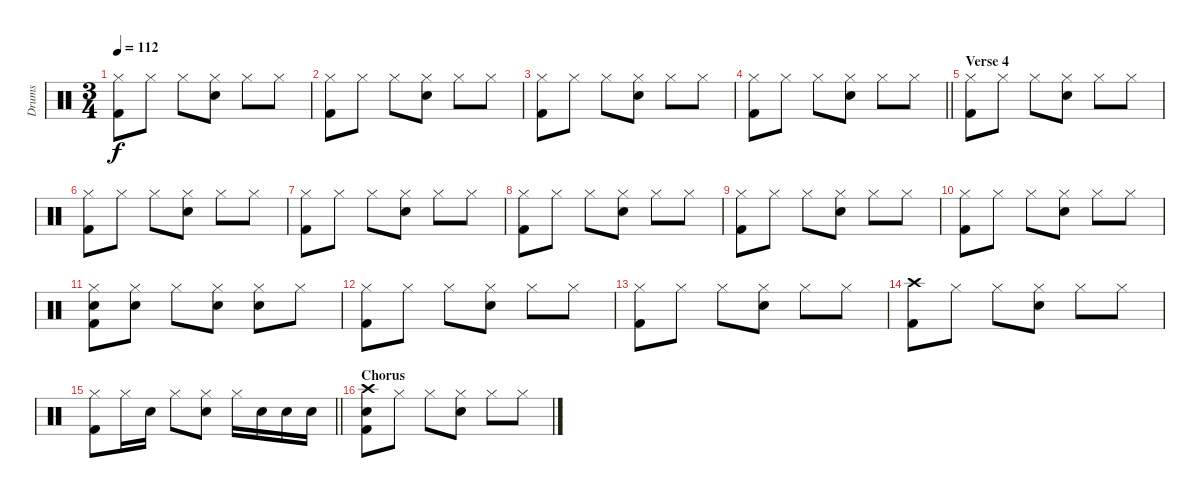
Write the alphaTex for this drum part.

\track ("Drums" "Drums") {instrument percussion}
\staff {score}
\articulation defaults
\ts (3 4)
\tempo 112
\clef neutral
\ks c
("Hi-Hat (closed)" "Kick (hit) 2").8{dy f} "Hi-Hat (closed)".8 "Hi-Hat (closed)".8 ("Hi-Hat (closed)" "Snare (hit) 2").8 "Hi-Hat (closed)".8 "Hi-Hat (closed)".8 |
("Hi-Hat (closed)" "Kick (hit) 2").8 "Hi-Hat (closed)".8 "Hi-Hat (closed)".8 ("Hi-Hat (closed)" "Snare (hit) 2").8 "Hi-Hat (closed)".8 "Hi-Hat (closed)".8 |
("Hi-Hat (closed)" "Kick (hit) 2").8 "Hi-Hat (closed)".8 "Hi-Hat (closed)".8 ("Hi-Hat (closed)" "Snare (hit) 2").8 "Hi-Hat (closed)".8 "Hi-Hat (closed)".8 |
\barLineRight lightlight
("Hi-Hat (closed)" "Kick (hit) 2").8 "Hi-Hat (closed)".8 "Hi-Hat (closed)".8 ("Hi-Hat (closed)" "Snare (hit) 2").8 "Hi-Hat (closed)".8 "Hi-Hat (closed)".8 |
\section ("" "Verse 4")
("Hi-Hat (closed)" "Kick (hit) 2").8 "Hi-Hat (closed)".8 "Hi-Hat (closed)".8 ("Hi-Hat (closed)" "Snare (hit) 2").8 "Hi-Hat (closed)".8 "Hi-Hat (closed)".8 |
("Hi-Hat (closed)" "Kick (hit) 2").8 "Hi-Hat (closed)".8 "Hi-Hat (closed)".8 ("Hi-Hat (closed)" "Snare (hit) 2").8 "Hi-Hat (closed)".8 "Hi-Hat (closed)".8 |
("Hi-Hat (closed)" "Kick (hit) 2").8 "Hi-Hat (closed)".8 "Hi-Hat (closed)".8 ("Hi-Hat (closed)" "Snare (hit) 2").8 "Hi-Hat (closed)".8 "Hi-Hat (closed)".8 |
("Hi-Hat (closed)" "Kick (hit) 2").8 "Hi-Hat (closed)".8 "Hi-Hat (closed)".8 ("Hi-Hat (closed)" "Snare (hit) 2").8 "Hi-Hat (closed)".8 "Hi-Hat (closed)".8 |
("Hi-Hat (closed)" "Kick (hit) 2").8 "Hi-Hat (closed)".8 "Hi-Hat (closed)".8 ("Hi-Hat (closed)" "Snare (hit) 2").8 "Hi-Hat (closed)".8 "Hi-Hat (closed)".8 |
("Hi-Hat (closed)" "Kick (hit) 2").8 "Hi-Hat (closed)".8 "Hi-Hat (closed)".8 ("Hi-Hat (closed)" "Snare (hit) 2").8 "Hi-Hat (closed)".8 "Hi-Hat (closed)".8 |
("Hi-Hat (closed)" "Snare (hit) 2" "Kick (hit) 2").8 ("Hi-Hat (closed)" "Snare (hit) 2").8 "Hi-Hat (closed)".8 ("Hi-Hat (closed)" "Snare (hit) 2").8 ("Hi-Hat (closed)" "Snare (hit) 2").8 "Hi-Hat (closed)".8 |
("Hi-Hat (closed)" "Kick (hit) 2").8 "Hi-Hat (closed)".8 "Hi-Hat (closed)".8 ("Hi-Hat (closed)" "Snare (hit) 2").8 "Hi-Hat (closed)".8 "Hi-Hat (closed)".8 |
("Hi-Hat (closed)" "Kick (hit) 2").8 "Hi-Hat (closed)".8 "Hi-Hat (closed)".8 ("Hi-Hat (closed)" "Snare (hit) 2").8 "Hi-Hat (closed)".8 "Hi-Hat (closed)".8 |
("Crash high (hit)" "Kick (hit) 2").8 "Hi-Hat (closed)".8 "Hi-Hat (closed)".8 ("Hi-Hat (closed)" "Snare (hit) 2").8 "Hi-Hat (closed)".8 "Hi-Hat (closed)".8 |
\barLineRight lightlight
("Hi-Hat (closed)" "Kick (hit) 2").8 "Hi-Hat (closed)".16 "Snare (hit) 2".16 "Hi-Hat (closed)".8 ("Hi-Hat (closed)" "Snare (hit) 2").8 "Hi-Hat (closed)".16 "Snare (hit) 2".16 "Snare (hit) 2".16 "Snare (hit) 2".16 |
\section ("" "Chorus")
("Crash high (hit)" "Snare (hit) 2" "Kick (hit) 2").8 "Hi-Hat (closed)".8 "Hi-Hat (closed)".8 ("Hi-Hat (closed)" "Snare (hit) 2").8 "Hi-Hat (closed)".8 "Hi-Hat (closed)".8
